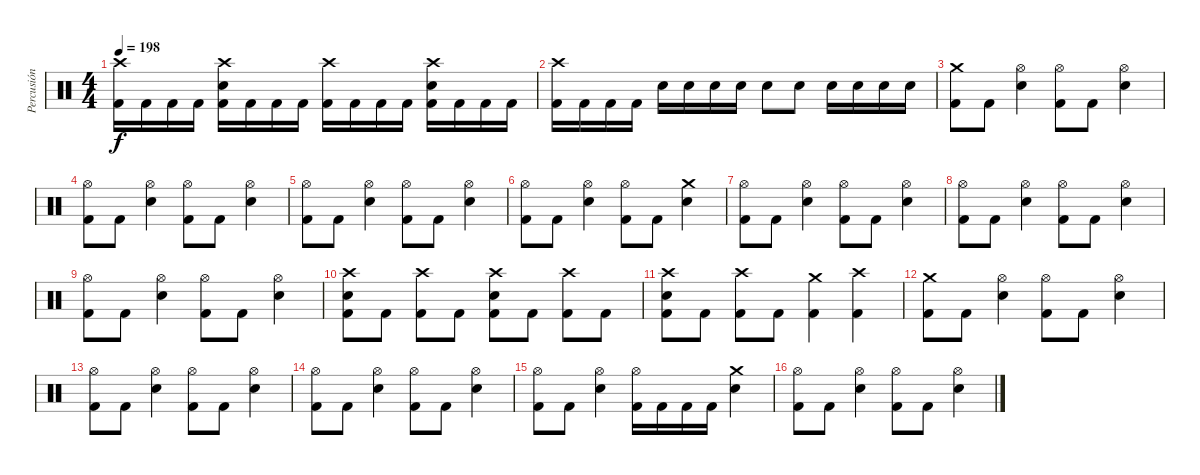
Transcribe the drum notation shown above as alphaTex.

\track ("Percusión" "Percusión") {instrument percussion}
\staff {score}
\articulation defaults
\ts (4 4)
\tempo 198
\clef neutral
\ks c
("Crash high (hit)" "Kick (hit) 2").16{dy f} "Kick (hit) 2".16 "Kick (hit) 2".16 "Kick (hit) 2".16 ("Crash high (hit)" "Electric Snare (hit)" "Kick (hit) 2").16 "Kick (hit) 2".16 "Kick (hit) 2".16 "Kick (hit) 2".16 ("Crash high (hit)" "Kick (hit) 2").16 "Kick (hit) 2".16 "Kick (hit) 2".16 "Kick (hit) 2".16 ("Crash high (hit)" "Electric Snare (hit)" "Kick (hit) 2").16 "Kick (hit) 2".16 "Kick (hit) 2".16 "Kick (hit) 2".16 |
("Crash high (hit)" "Kick (hit) 2").16 "Kick (hit) 2".16 "Kick (hit) 2".16 "Kick (hit) 2".16 "Electric Snare (hit)".16 "Electric Snare (hit)".16 "Electric Snare (hit)".16 "Electric Snare (hit)".16 "Electric Snare (hit)".8 "Electric Snare (hit)".8 "Electric Snare (hit)".16 "Electric Snare (hit)".16 "Electric Snare (hit)".16 "Electric Snare (hit)".16 |
("Crash medium (hit)" "Kick (hit) 2").8 "Kick (hit) 2".8 ("Hi-Hat (open)" "Electric Snare (hit)").4 ("Hi-Hat (open)" "Kick (hit) 2").8 "Kick (hit) 2".8 ("Hi-Hat (open)" "Electric Snare (hit)").4 |
("Hi-Hat (open)" "Kick (hit) 2").8 "Kick (hit) 2".8 ("Hi-Hat (open)" "Electric Snare (hit)").4 ("Hi-Hat (open)" "Kick (hit) 2").8 "Kick (hit) 2".8 ("Hi-Hat (open)" "Electric Snare (hit)").4 |
("Hi-Hat (open)" "Kick (hit) 2").8 "Kick (hit) 2".8 ("Hi-Hat (open)" "Electric Snare (hit)").4 ("Hi-Hat (open)" "Kick (hit) 2").8 "Kick (hit) 2".8 ("Hi-Hat (open)" "Electric Snare (hit)").4 |
("Hi-Hat (open)" "Kick (hit) 2").8 "Kick (hit) 2".8 ("Hi-Hat (open)" "Electric Snare (hit)").4 ("Hi-Hat (open)" "Kick (hit) 2").8 "Kick (hit) 2".8 ("Crash medium (hit)" "Electric Snare (hit)").4 |
("Hi-Hat (open)" "Kick (hit) 2").8 "Kick (hit) 2".8 ("Hi-Hat (open)" "Electric Snare (hit)").4 ("Hi-Hat (open)" "Kick (hit) 2").8 "Kick (hit) 2".8 ("Hi-Hat (open)" "Electric Snare (hit)").4 |
("Hi-Hat (open)" "Kick (hit) 2").8 "Kick (hit) 2".8 ("Hi-Hat (open)" "Electric Snare (hit)").4 ("Hi-Hat (open)" "Kick (hit) 2").8 "Kick (hit) 2".8 ("Hi-Hat (open)" "Electric Snare (hit)").4 |
("Hi-Hat (open)" "Kick (hit) 2").8 "Kick (hit) 2".8 ("Hi-Hat (open)" "Electric Snare (hit)").4 ("Hi-Hat (open)" "Kick (hit) 2").8 "Kick (hit) 2".8 ("Hi-Hat (open)" "Electric Snare (hit)").4 |
("Crash high (hit)" "Electric Snare (hit)" "Kick (hit) 2").8 "Kick (hit) 2".8 ("Crash high (hit)" "Kick (hit) 2").8 "Kick (hit) 2".8 ("Crash high (hit)" "Electric Snare (hit)" "Kick (hit) 2").8 "Kick (hit) 2".8 ("Crash high (hit)" "Kick (hit) 2").8 "Kick (hit) 2".8 |
("Crash high (hit)" "Electric Snare (hit)" "Kick (hit) 2").8 "Kick (hit) 2".8 ("Crash high (hit)" "Kick (hit) 2").8 "Kick (hit) 2".8 ("Crash medium (hit)" "Kick (hit) 2").4 ("Crash high (hit)" "Kick (hit) 2").4 |
("Crash medium (hit)" "Kick (hit) 2").8 "Kick (hit) 2".8 ("Hi-Hat (open)" "Electric Snare (hit)").4 ("Hi-Hat (open)" "Kick (hit) 2").8 "Kick (hit) 2".8 ("Hi-Hat (open)" "Electric Snare (hit)").4 |
("Hi-Hat (open)" "Kick (hit) 2").8 "Kick (hit) 2".8 ("Hi-Hat (open)" "Electric Snare (hit)").4 ("Hi-Hat (open)" "Kick (hit) 2").8 "Kick (hit) 2".8 ("Hi-Hat (open)" "Electric Snare (hit)").4 |
("Hi-Hat (open)" "Kick (hit) 2").8 "Kick (hit) 2".8 ("Hi-Hat (open)" "Electric Snare (hit)").4 ("Hi-Hat (open)" "Kick (hit) 2").8 "Kick (hit) 2".8 ("Hi-Hat (open)" "Electric Snare (hit)").4 |
("Hi-Hat (open)" "Kick (hit) 2").8 "Kick (hit) 2".8 ("Hi-Hat (open)" "Electric Snare (hit)").4 ("Hi-Hat (open)" "Kick (hit) 2").16 "Kick (hit) 2".16 "Kick (hit) 2".16 "Kick (hit) 2".16 ("Crash medium (hit)" "Electric Snare (hit)").4 |
("Hi-Hat (open)" "Kick (hit) 2").8 "Kick (hit) 2".8 ("Hi-Hat (open)" "Electric Snare (hit)").4 ("Hi-Hat (open)" "Kick (hit) 2").8 "Kick (hit) 2".8 ("Hi-Hat (open)" "Electric Snare (hit)").4
